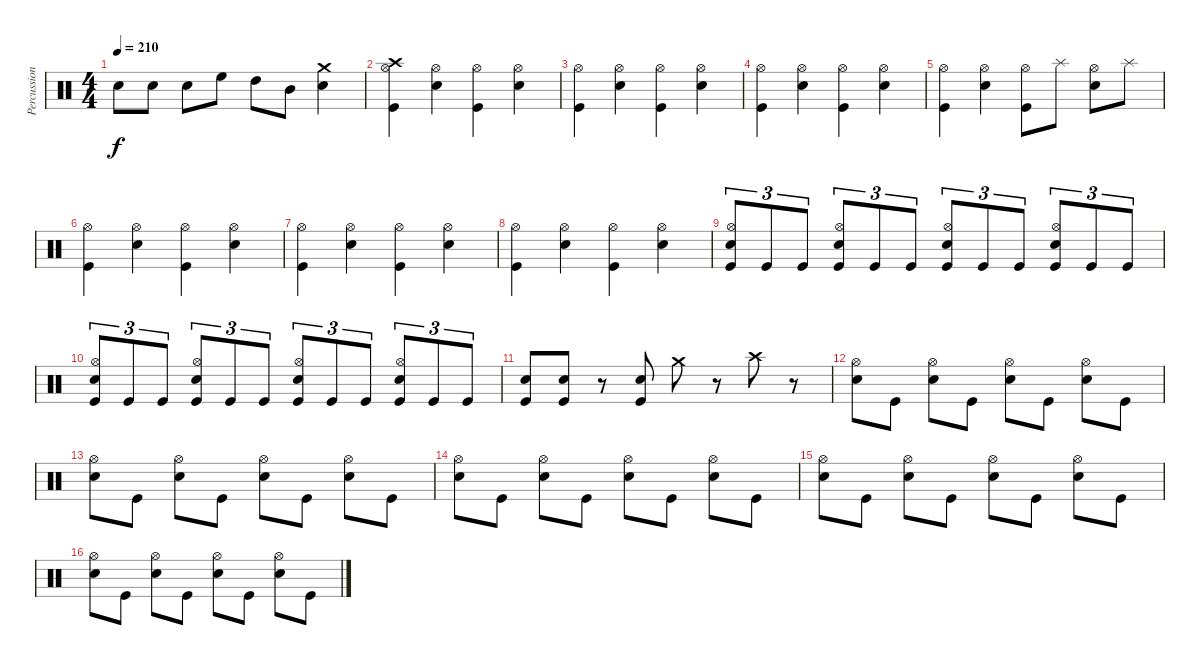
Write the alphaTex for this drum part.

\track ("Percussion" "Percussion") {instrument percussion}
\staff {score}
\articulation defaults
\ts (4 4)
\tempo 210
\clef neutral
\ks c "Snare (hit) 2".8{dy f} "Snare (hit) 2".8 "Snare (hit) 2".8 "High Floor Tom (hit)".8 "High Tom (hit)".8 "Mid Tom (hit)".8
("Snare (hit) 2" "Crash medium (hit)").4 |
("Crash high (hit)" "Hi-Hat (open)" "Kick (hit)").4 ("Snare (hit) 2" "Hi-Hat (open)").4 ("Hi-Hat (open)" "Kick (hit)").4 ("Snare (hit) 2" "Hi-Hat (open)").4 |
("Hi-Hat (open)" "Kick (hit)").4 ("Snare (hit) 2" "Hi-Hat (open)").4 ("Hi-Hat (open)" "Kick (hit)").4 ("Snare (hit) 2" "Hi-Hat (open)").4 |
("Hi-Hat (open)" "Kick (hit)").4 ("Snare (hit) 2" "Hi-Hat (open)").4 ("Hi-Hat (open)" "Kick (hit)").4 ("Snare (hit) 2" "Hi-Hat (open)").4 |
("Hi-Hat (open)" "Kick (hit)").4 ("Snare (hit) 2" "Hi-Hat (open)").4 ("Hi-Hat (open)" "Kick (hit)").8 "Splash (hit)".8 ("Snare (hit) 2" "Hi-Hat (open)").8 "Splash (hit)".8 |
("Hi-Hat (open)" "Kick (hit)").4 ("Snare (hit) 2" "Hi-Hat (open)").4 ("Hi-Hat (open)" "Kick (hit)").4 ("Snare (hit) 2" "Hi-Hat (open)").4 |
("Hi-Hat (open)" "Kick (hit)").4 ("Snare (hit) 2" "Hi-Hat (open)").4 ("Hi-Hat (open)" "Kick (hit)").4 ("Snare (hit) 2" "Hi-Hat (open)").4 |
("Hi-Hat (open)" "Kick (hit)").4 ("Snare (hit) 2" "Hi-Hat (open)").4 ("Hi-Hat (open)" "Kick (hit)").4 ("Snare (hit) 2" "Hi-Hat (open)").4 |
("Snare (hit) 2" "Hi-Hat (open)" "Kick (hit)").8{tu (3 2)} "Kick (hit)".8{tu (3 2)} "Kick (hit)".8{tu (3 2)} ("Snare (hit) 2" "Hi-Hat (open)" "Kick (hit)").8{tu (3 2)} "Kick (hit)".8{tu (3 2)} "Kick (hit)".8{tu (3 2)} ("Snare (hit) 2" "Hi-Hat (open)" "Kick (hit)").8{tu (3 2)} "Kick (hit)".8{tu (3 2)} "Kick (hit)".8{tu (3 2)} ("Snare (hit) 2" "Hi-Hat (open)" "Kick (hit)").8{tu (3 2)} "Kick (hit)".8{tu (3 2)} "Kick (hit)".8{tu (3 2)} |
("Snare (hit) 2" "Hi-Hat (open)" "Kick (hit)").8{tu (3 2)} "Kick (hit)".8{tu (3 2)} "Kick (hit)".8{tu (3 2)} ("Snare (hit) 2" "Hi-Hat (open)" "Kick (hit)").8{tu (3 2)} "Kick (hit)".8{tu (3 2)} "Kick (hit)".8{tu (3 2)} ("Snare (hit) 2" "Hi-Hat (open)" "Kick (hit)").8{tu (3 2)} "Kick (hit)".8{tu (3 2)} "Kick (hit)".8{tu (3 2)} ("Snare (hit) 2" "Hi-Hat (open)" "Kick (hit)").8{tu (3 2)} "Kick (hit)".8{tu (3 2)} "Kick (hit)".8{tu (3 2)} |
("Snare (hit) 2" "Kick (hit)").8 ("Snare (hit) 2" "Kick (hit)").8 r.8 ("Snare (hit) 2" "Kick (hit)").8 "Crash medium (hit)".8 r.8 "Crash high (hit)".8 r.8 |
("Snare (hit) 2" "Hi-Hat (open)").8 "Kick (hit)".8 ("Snare (hit) 2" "Hi-Hat (open)").8 "Kick (hit)".8 ("Snare (hit) 2" "Hi-Hat (open)").8 "Kick (hit)".8 ("Snare (hit) 2" "Hi-Hat (open)").8 "Kick (hit)".8 |
("Snare (hit) 2" "Hi-Hat (open)").8 "Kick (hit)".8 ("Snare (hit) 2" "Hi-Hat (open)").8 "Kick (hit)".8 ("Snare (hit) 2" "Hi-Hat (open)").8 "Kick (hit)".8 ("Snare (hit) 2" "Hi-Hat (open)").8 "Kick (hit)".8 |
("Snare (hit) 2" "Hi-Hat (open)").8 "Kick (hit)".8 ("Snare (hit) 2" "Hi-Hat (open)").8 "Kick (hit)".8 ("Snare (hit) 2" "Hi-Hat (open)").8 "Kick (hit)".8 ("Snare (hit) 2" "Hi-Hat (open)").8 "Kick (hit)".8 |
("Snare (hit) 2" "Hi-Hat (open)").8 "Kick (hit)".8 ("Snare (hit) 2" "Hi-Hat (open)").8 "Kick (hit)".8 ("Snare (hit) 2" "Hi-Hat (open)").8 "Kick (hit)".8 ("Snare (hit) 2" "Hi-Hat (open)").8 "Kick (hit)".8 |
("Snare (hit) 2" "Hi-Hat (open)").8 "Kick (hit)".8 ("Snare (hit) 2" "Hi-Hat (open)").8 "Kick (hit)".8 ("Snare (hit) 2" "Hi-Hat (open)").8 "Kick (hit)".8 ("Snare (hit) 2" "Hi-Hat (open)").8 "Kick (hit)".8
